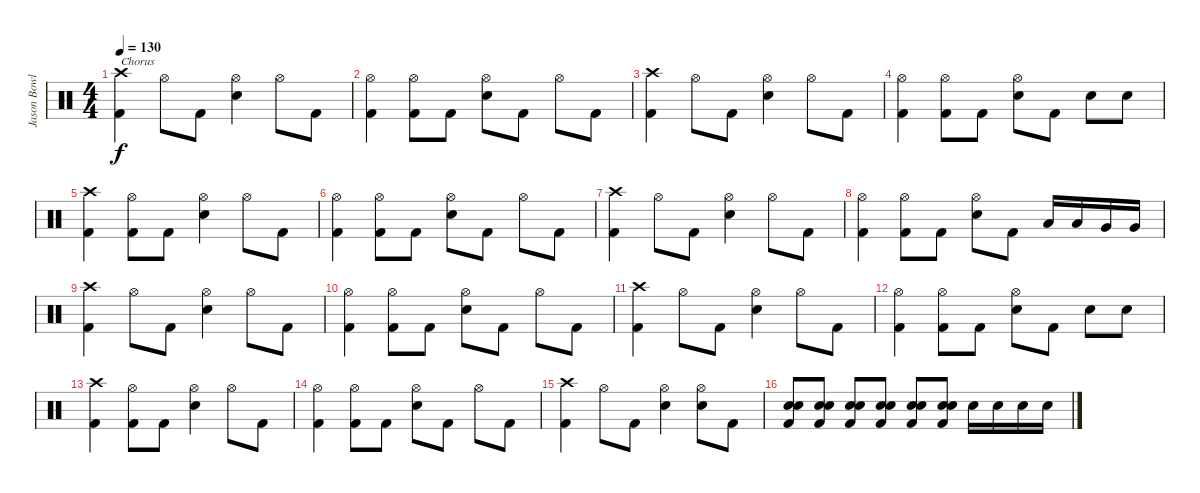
\track ("Jason Bowld" "Jason Bowl") {instrument percussion}
\staff {score}
\articulation defaults
\ts (4 4)
\tempo 130
\clef neutral
\ks c
("Crash high (hit)" "Kick (hit) 2").4{txt "Chorus" dy f} "Hi-Hat (open)".8 "Kick (hit) 2".8 ("Hi-Hat (open)" "Snare (hit) 2").4 "Hi-Hat (open)".8 "Kick (hit) 2".8 |
("Hi-Hat (open)" "Kick (hit) 2").4 ("Hi-Hat (open)" "Kick (hit) 2").8 "Kick (hit) 2".8 ("Hi-Hat (open)" "Snare (hit) 2").8 "Kick (hit) 2".8 "Hi-Hat (open)".8 "Kick (hit) 2".8 |
("Crash high (hit)" "Kick (hit) 2").4 "Hi-Hat (open)".8 "Kick (hit) 2".8 ("Hi-Hat (open)" "Snare (hit) 2").4 "Hi-Hat (open)".8 "Kick (hit) 2".8 |
("Hi-Hat (open)" "Kick (hit) 2").4 ("Hi-Hat (open)" "Kick (hit) 2").8 "Kick (hit) 2".8 ("Hi-Hat (open)" "Snare (hit) 2").8 "Kick (hit) 2".8 "Snare (hit) 2".8 "Snare (hit) 2".8 |
("Crash high (hit)" "Kick (hit) 2").4 ("Hi-Hat (open)" "Kick (hit) 2").8 "Kick (hit) 2".8 ("Hi-Hat (open)" "Snare (hit) 2").4 "Hi-Hat (open)".8 "Kick (hit) 2".8 |
("Hi-Hat (open)" "Kick (hit) 2").4 ("Hi-Hat (open)" "Kick (hit) 2").8 "Kick (hit) 2".8 ("Hi-Hat (open)" "Snare (hit) 2").8 "Kick (hit) 2".8 "Hi-Hat (open)".8 "Kick (hit) 2".8 |
("Crash high (hit)" "Kick (hit) 2").4 "Hi-Hat (open)".8 "Kick (hit) 2".8 ("Hi-Hat (open)" "Snare (hit) 2").4 "Hi-Hat (open)".8 "Kick (hit) 2".8 |
("Hi-Hat (open)" "Kick (hit) 2").4 ("Hi-Hat (open)" "Kick (hit) 2").8 "Kick (hit) 2".8 ("Hi-Hat (open)" "Snare (hit) 2").8 "Kick (hit) 2".8 "Low Tom (hit)".16 "Low Tom (hit)".16 "Very Low Tom (hit)".16 "Very Low Tom (hit)".16 |
("Crash high (hit)" "Kick (hit) 2").4 "Hi-Hat (open)".8 "Kick (hit) 2".8 ("Hi-Hat (open)" "Snare (hit) 2").4 "Hi-Hat (open)".8 "Kick (hit) 2".8 |
("Hi-Hat (open)" "Kick (hit) 2").4 ("Hi-Hat (open)" "Kick (hit) 2").8 "Kick (hit) 2".8 ("Hi-Hat (open)" "Snare (hit) 2").8 "Kick (hit) 2".8 "Hi-Hat (open)".8 "Kick (hit) 2".8 |
("Crash high (hit)" "Kick (hit) 2").4 "Hi-Hat (open)".8 "Kick (hit) 2".8 ("Hi-Hat (open)" "Snare (hit) 2").4 "Hi-Hat (open)".8 "Kick (hit) 2".8 |
("Hi-Hat (open)" "Kick (hit) 2").4 ("Hi-Hat (open)" "Kick (hit) 2").8 "Kick (hit) 2".8 ("Hi-Hat (open)" "Snare (hit) 2").8 "Kick (hit) 2".8 "Snare (hit) 2".8 "Snare (hit) 2".8 |
("Crash high (hit)" "Kick (hit) 2").4 ("Hi-Hat (open)" "Kick (hit) 2").8 "Kick (hit) 2".8 ("Hi-Hat (open)" "Snare (hit) 2").4 "Hi-Hat (open)".8 "Kick (hit) 2".8 |
("Hi-Hat (open)" "Kick (hit) 2").4 ("Hi-Hat (open)" "Kick (hit) 2").8 "Kick (hit) 2".8 ("Hi-Hat (open)" "Snare (hit) 2").8 "Kick (hit) 2".8 "Hi-Hat (open)".8 "Kick (hit) 2".8 |
("Crash high (hit)" "Kick (hit) 2").4 "Hi-Hat (open)".8 "Kick (hit) 2".8 ("Hi-Hat (open)" "Snare (hit) 2").4 ("Hi-Hat (open)" "Snare (hit) 2").8 "Kick (hit) 2".8 |
("Snare (hit) 2" "Snare (hit) 2" "Kick (hit) 2").8 ("Snare (hit) 2" "Snare (hit) 2" "Kick (hit) 2").8 ("Snare (hit) 2" "Snare (hit) 2" "Kick (hit) 2").8 ("Snare (hit) 2" "Snare (hit) 2" "Kick (hit) 2").8 ("Snare (hit) 2" "Snare (hit) 2" "Kick (hit) 2").8 ("Snare (hit) 2" "Snare (hit) 2" "Kick (hit) 2").8 "Snare (hit) 2".16 "Snare (hit) 2".16 "Snare (hit) 2".16 "Snare (hit) 2".16
